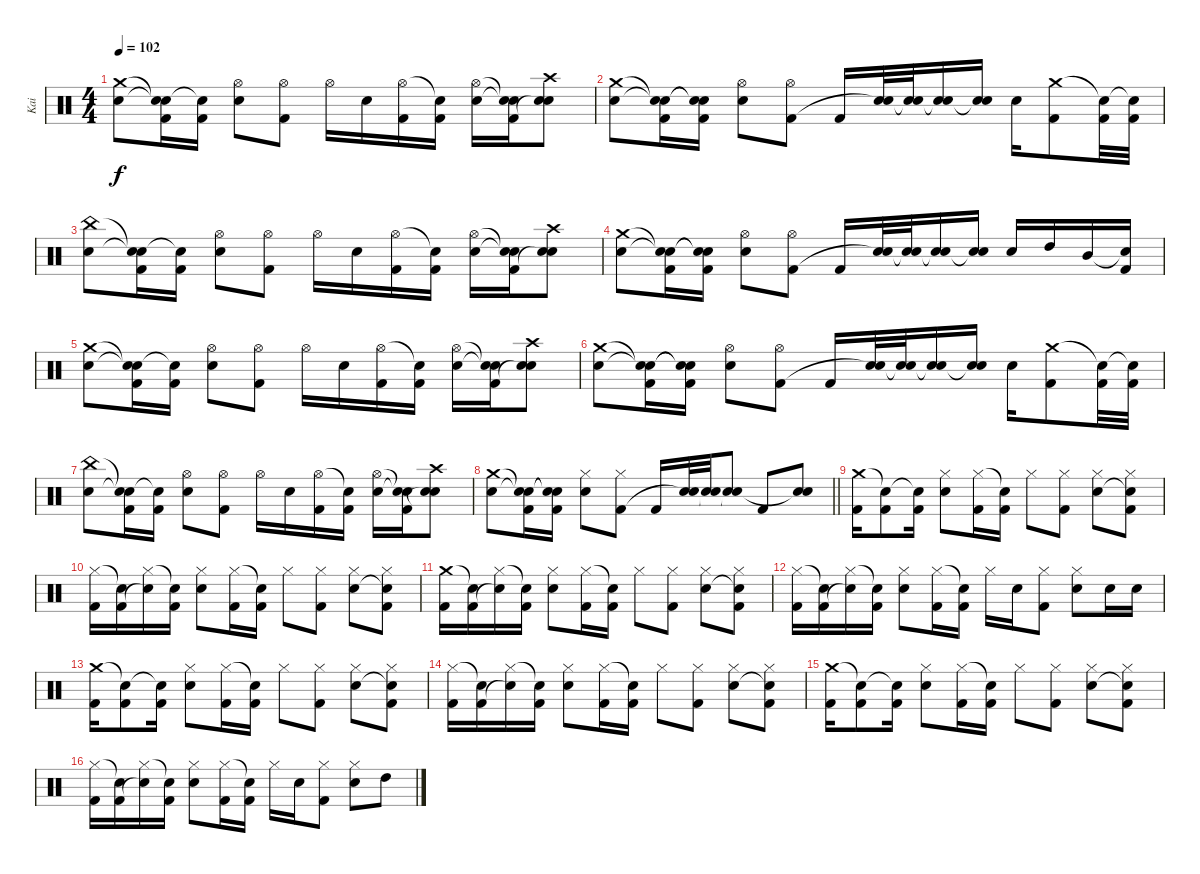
\track ("Kai" "Kai") {instrument percussion}
\staff {score}
\articulation defaults
\ts (4 4)
\tempo 102
\clef neutral
\ks c
("Crash medium (hit)" "Snare (hit) 2").8{dy f} ("Snare (hit)"{t} "Snare (hit)"{t} "Kick (hit) 2").16 ("Snare (hit)"{t} "Kick (hit) 2").16 ("Hi-Hat (open)" "Snare (hit) 2").8 ("Hi-Hat (open)" "Kick (hit) 2").8 "Hi-Hat (open)".16 "Snare (hit) 2".16 ("Hi-Hat (open)" "Kick (hit) 2").16 ("Snare (hit)"{t} "Kick (hit) 2").16 ("Hi-Hat (open)" "Snare (hit) 2").16 ("Snare (hit)"{t} "Snare (hit)"{t} "Kick (hit) 2").16 ("Crash high (hit)" "Snare (hit) 2" "Snare (hit)"{t}).8 |
("Crash medium (hit)" "Snare (hit) 2").8 ("Snare (hit)"{t} "Snare (hit)"{t} "Kick (hit) 2").16 ("Snare (hit)"{t} "Snare (hit)"{t} "Kick (hit) 2").16 ("Hi-Hat (open)" "Snare (hit) 2").8 ("Hi-Hat (open)" "Kick (hit) 2").8 "Kick (hit) 2".16 ("Snare (hit) 2" "Snare (hit)"{t}).32 ("Snare (hit) 2" "Snare (hit)"{t}).32 ("Snare (hit) 2" "Snare (hit)"{t}).16 ("Snare (hit) 2" "Snare (hit)"{t}).16 "Snare (hit) 2".16 ("Crash medium (hit)" "Kick (hit) 2").8 ("Snare (hit)"{t} "Kick (hit) 2").32 ("Snare (hit)"{t} "Kick (hit) 2").32 |
("China (hit)" "Snare (hit) 2").8 ("Snare (hit)"{t} "Snare (hit)"{t} "Kick (hit) 2").16 ("Snare (hit)"{t} "Kick (hit) 2").16 ("Hi-Hat (open)" "Snare (hit) 2").8 ("Hi-Hat (open)" "Kick (hit) 2").8 "Hi-Hat (open)".16 "Snare (hit) 2".16 ("Hi-Hat (open)" "Kick (hit) 2").16 ("Snare (hit)"{t} "Kick (hit) 2").16 ("Hi-Hat (open)" "Snare (hit) 2").16 ("Snare (hit)"{t} "Snare (hit)"{t} "Kick (hit) 2").16 ("Crash high (hit)" "Snare (hit) 2" "Snare (hit)"{t}).8 |
("Crash medium (hit)" "Snare (hit) 2").8 ("Snare (hit)"{t} "Snare (hit)"{t} "Kick (hit) 2").16 ("Snare (hit)"{t} "Snare (hit)"{t} "Kick (hit) 2").16 ("Hi-Hat (open)" "Snare (hit) 2").8 ("Hi-Hat (open)" "Kick (hit) 2").8 "Kick (hit) 2".16 ("Snare (hit) 2" "Snare (hit)"{t}).32 ("Snare (hit) 2" "Snare (hit)"{t}).32 ("Snare (hit) 2" "Snare (hit)"{t}).16 ("Snare (hit) 2" "Snare (hit)"{t}).16 "Snare (hit) 2".16 "High Tom (hit)".16 "Mid Tom (hit)".16 ("Snare (hit)"{t} "Kick (hit) 2").16 |
("Crash medium (hit)" "Snare (hit) 2").8 ("Snare (hit)"{t} "Snare (hit)"{t} "Kick (hit) 2").16 ("Snare (hit)"{t} "Kick (hit) 2").16 ("Hi-Hat (open)" "Snare (hit) 2").8 ("Hi-Hat (open)" "Kick (hit) 2").8 "Hi-Hat (open)".16 "Snare (hit) 2".16 ("Hi-Hat (open)" "Kick (hit) 2").16 ("Snare (hit)"{t} "Kick (hit) 2").16 ("Hi-Hat (open)" "Snare (hit) 2").16 ("Snare (hit)"{t} "Snare (hit)"{t} "Kick (hit) 2").16 ("Crash high (hit)" "Snare (hit) 2" "Snare (hit)"{t}).8 |
("Crash medium (hit)" "Snare (hit) 2").8 ("Snare (hit)"{t} "Snare (hit)"{t} "Kick (hit) 2").16 ("Snare (hit)"{t} "Snare (hit)"{t} "Kick (hit) 2").16 ("Hi-Hat (open)" "Snare (hit) 2").8 ("Hi-Hat (open)" "Kick (hit) 2").8 "Kick (hit) 2".16 ("Snare (hit) 2" "Snare (hit)"{t}).32 ("Snare (hit) 2" "Snare (hit)"{t}).32 ("Snare (hit) 2" "Snare (hit)"{t}).16 ("Snare (hit) 2" "Snare (hit)"{t}).16 "Snare (hit) 2".16 ("Crash medium (hit)" "Kick (hit) 2").8 ("Snare (hit)"{t} "Kick (hit) 2").32 ("Snare (hit)"{t} "Kick (hit) 2").32 |
("China (hit)" "Snare (hit) 2").8 ("Snare (hit)"{t} "Snare (hit)"{t} "Kick (hit) 2").16 ("Snare (hit)"{t} "Kick (hit) 2").16 ("Hi-Hat (open)" "Snare (hit) 2").8 ("Hi-Hat (open)" "Kick (hit) 2").8 "Hi-Hat (open)".16 "Snare (hit) 2".16 ("Hi-Hat (open)" "Kick (hit) 2").16 ("Snare (hit)"{t} "Kick (hit) 2").16 ("Hi-Hat (open)" "Snare (hit) 2").16 ("Snare (hit)"{t} "Snare (hit)"{t} "Kick (hit) 2").16 ("Crash high (hit)" "Snare (hit) 2" "Snare (hit)"{t}).8 |
\barLineRight lightlight
("Crash medium (hit)" "Snare (hit) 2").8 ("Snare (hit)"{t} "Snare (hit)"{t} "Kick (hit) 2").16 ("Snare (hit)"{t} "Snare (hit)"{t} "Kick (hit) 2").16 ("Hi-Hat (closed)" "Snare (hit) 2").8 ("Hi-Hat (closed)" "Kick (hit) 2").8 "Kick (hit) 2".16 ("Snare (hit) 2" "Snare (hit)"{t}).32 ("Snare (hit) 2" "Snare (hit)"{t}).32 ("Snare (hit) 2" "Snare (hit)"{t}).8 "Kick (hit) 2".8 ("Snare (hit) 2" "Snare (hit)"{t}).8 |
("Crash medium (hit)" "Kick (hit) 2").16 ("Snare (hit)"{t} "Kick (hit) 2").8 ("Snare (hit)"{t} "Kick (hit) 2").16 ("Hi-Hat (closed)" "Snare (hit) 2").8 ("Hi-Hat (closed)" "Kick (hit) 2").16 ("Snare (hit)"{t} "Kick (hit) 2").16 "Hi-Hat (closed)".8 ("Hi-Hat (closed)" "Kick (hit) 2").8 ("Hi-Hat (closed)" "Snare (hit) 2").8 ("Hi-Hat (closed)" "Snare (hit) 2"{t} "Kick (hit) 2").8 |
("Hi-Hat (closed)" "Kick (hit) 2").16 ("Snare (hit)"{t} "Kick (hit) 2").16 ("Hi-Hat (closed)" "Snare (hit)"{t}).16 ("Snare (hit)"{t} "Kick (hit) 2").16 ("Hi-Hat (closed)" "Snare (hit) 2").8 ("Hi-Hat (closed)" "Kick (hit) 2").16 ("Snare (hit)"{t} "Kick (hit) 2").16 "Hi-Hat (closed)".8 ("Hi-Hat (closed)" "Kick (hit) 2").8 ("Hi-Hat (closed)" "Snare (hit) 2").8 ("Hi-Hat (closed)" "Snare (hit) 2"{t} "Kick (hit) 2").8 |
("Crash medium (hit)" "Kick (hit) 2").16 ("Snare (hit)"{t} "Kick (hit) 2").16 ("Hi-Hat (closed)" "Snare (hit)"{t}).16 ("Snare (hit)"{t} "Kick (hit) 2").16 ("Hi-Hat (closed)" "Snare (hit) 2").8 ("Hi-Hat (closed)" "Kick (hit) 2").16 ("Snare (hit)"{t} "Kick (hit) 2").16 "Hi-Hat (closed)".8 ("Hi-Hat (closed)" "Kick (hit) 2").8 ("Hi-Hat (closed)" "Snare (hit) 2").8 ("Hi-Hat (closed)" "Snare (hit) 2"{t} "Kick (hit) 2").8 |
("Hi-Hat (closed)" "Kick (hit) 2").16 ("Snare (hit)"{t} "Kick (hit) 2").16 ("Hi-Hat (closed)" "Snare (hit)"{t}).16 ("Snare (hit)"{t} "Kick (hit) 2").16 ("Hi-Hat (closed)" "Snare (hit) 2").8 ("Hi-Hat (closed)" "Kick (hit) 2").16 ("Snare (hit)"{t} "Kick (hit) 2").16 "Hi-Hat (closed)".16 "Snare (hit) 2".16 ("Hi-Hat (closed)" "Kick (hit) 2").8 ("Hi-Hat (closed)" "Snare (hit) 2").8 "Snare (hit) 2".16 "Snare (hit) 2".16 |
("Crash medium (hit)" "Kick (hit) 2").16 ("Snare (hit)"{t} "Kick (hit) 2").8 ("Snare (hit)"{t} "Kick (hit) 2").16 ("Hi-Hat (closed)" "Snare (hit) 2").8 ("Hi-Hat (closed)" "Kick (hit) 2").16 ("Snare (hit)"{t} "Kick (hit) 2").16 "Hi-Hat (closed)".8 ("Hi-Hat (closed)" "Kick (hit) 2").8 ("Hi-Hat (closed)" "Snare (hit) 2").8 ("Hi-Hat (closed)" "Snare (hit) 2"{t} "Kick (hit) 2").8 |
("Hi-Hat (closed)" "Kick (hit) 2").16 ("Snare (hit)"{t} "Kick (hit) 2").16 ("Hi-Hat (closed)" "Snare (hit)"{t}).16 ("Snare (hit)"{t} "Kick (hit) 2").16 ("Hi-Hat (closed)" "Snare (hit) 2").8 ("Hi-Hat (closed)" "Kick (hit) 2").16 ("Snare (hit)"{t} "Kick (hit) 2").16 "Hi-Hat (closed)".8 ("Hi-Hat (closed)" "Kick (hit) 2").8 ("Hi-Hat (closed)" "Snare (hit) 2").8 ("Hi-Hat (closed)" "Snare (hit) 2"{t} "Kick (hit) 2").8 |
("Crash medium (hit)" "Kick (hit) 2").16 ("Snare (hit)"{t} "Kick (hit) 2").8 ("Snare (hit)"{t} "Kick (hit) 2").16 ("Hi-Hat (closed)" "Snare (hit) 2").8 ("Hi-Hat (closed)" "Kick (hit) 2").16 ("Snare (hit)"{t} "Kick (hit) 2").16 "Hi-Hat (closed)".8 ("Hi-Hat (closed)" "Kick (hit) 2").8 ("Hi-Hat (closed)" "Snare (hit) 2").8 ("Hi-Hat (closed)" "Snare (hit) 2"{t} "Kick (hit) 2").8 |
("Hi-Hat (closed)" "Kick (hit) 2").16 ("Snare (hit)"{t} "Kick (hit) 2").16 ("Hi-Hat (closed)" "Snare (hit)"{t}).16 ("Snare (hit)"{t} "Kick (hit) 2").16 ("Hi-Hat (closed)" "Snare (hit) 2").8 ("Hi-Hat (closed)" "Kick (hit) 2").16 ("Snare (hit)"{t} "Kick (hit) 2").16 "Hi-Hat (closed)".16 "Snare (hit) 2".16 ("Hi-Hat (closed)" "Kick (hit) 2").8 ("Hi-Hat (closed)" "Snare (hit) 2").8 "High Tom (hit)".8
